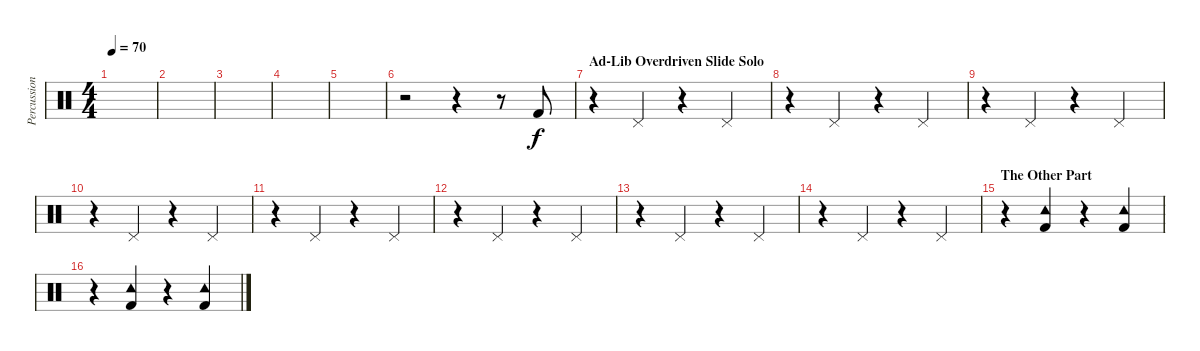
\track ("Percussion" "Percussion") {instrument percussion}
\staff {score}
\articulation defaults
\ts (4 4)
\tempo 70
\clef neutral
\ks c
|
|
|
|
|
r.2 r.4 r.8 "Kick (hit) 2".8 |
\section ("" "Ad-Lib Overdriven Slide Solo")
r.4 "Pedal Hi-Hat (hit)".4 r.4 "Pedal Hi-Hat (hit)".4 |
r.4 "Pedal Hi-Hat (hit)".4 r.4 "Pedal Hi-Hat (hit)".4 |
r.4 "Pedal Hi-Hat (hit)".4 r.4 "Pedal Hi-Hat (hit)".4 |
r.4 "Pedal Hi-Hat (hit)".4 r.4 "Pedal Hi-Hat (hit)".4 |
r.4 "Pedal Hi-Hat (hit)".4 r.4 "Pedal Hi-Hat (hit)".4 |
r.4 "Pedal Hi-Hat (hit)".4 r.4 "Pedal Hi-Hat (hit)".4 |
r.4 "Pedal Hi-Hat (hit)".4 r.4 "Pedal Hi-Hat (hit)".4 |
r.4 "Pedal Hi-Hat (hit)".4 r.4 "Pedal Hi-Hat (hit)".4 |
\section ("" "The Other Part")
r.4 ("Tambourine (hit)" "Kick (hit) 2").4 r.4 ("Tambourine (hit)" "Kick (hit) 2").4 |
r.4 ("Tambourine (hit)" "Kick (hit) 2").4 r.4 ("Tambourine (hit)" "Kick (hit) 2").4
